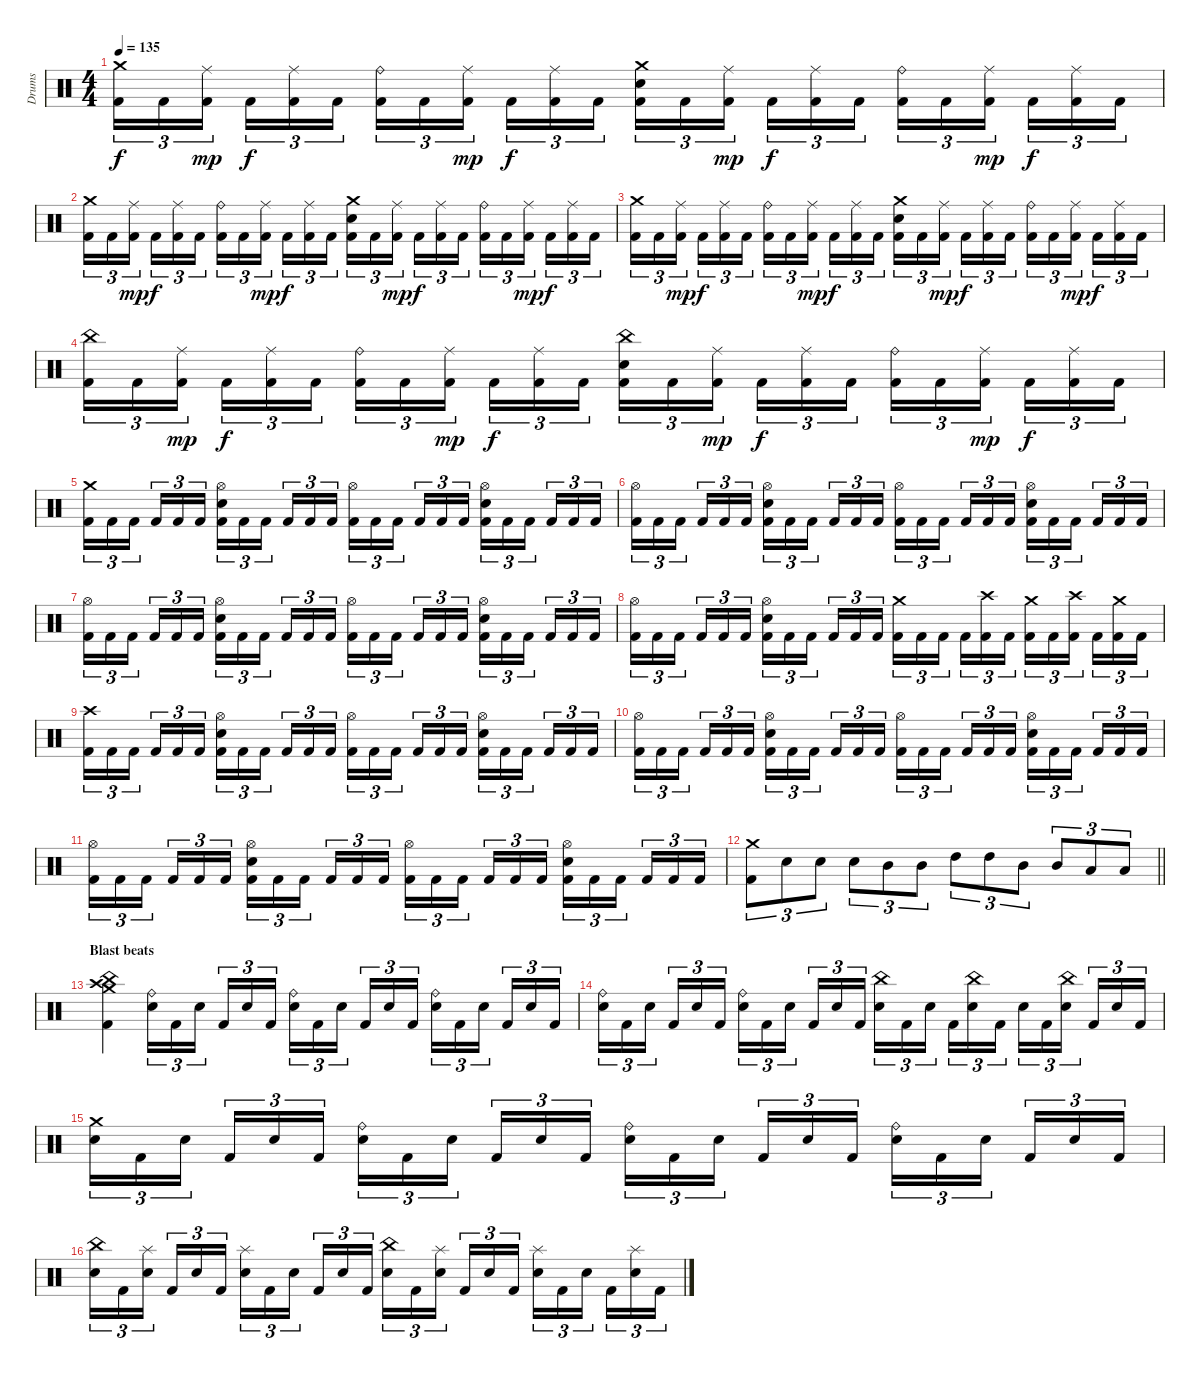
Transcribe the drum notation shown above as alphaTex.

\track ("Drums" "Drums") {instrument percussion}
\staff {score}
\articulation defaults
\ts (4 4)
\tempo 135
\clef neutral
\ks c
("Crash medium (hit)" "Kick (hit) 2").16{tu (3 2) dy f} "Kick (hit) 2".16{tu (3 2)} ("Ride (middle)" "Kick (hit) 2").16{tu (3 2) dy mp beam splitsecondary} "Kick (hit) 2".16{tu (3 2) dy f} ("Ride (middle)" "Kick (hit) 2").16{tu (3 2)} "Kick (hit) 2".16{tu (3 2)} ("Ride (bell)" "Kick (hit) 2").16{tu (3 2)} "Kick (hit) 2".16{tu (3 2)} ("Ride (middle)" "Kick (hit) 2").16{tu (3 2) dy mp beam splitsecondary} "Kick (hit) 2".16{tu (3 2) dy f} ("Ride (middle)" "Kick (hit) 2").16{tu (3 2)} "Kick (hit) 2".16{tu (3 2)} ("Crash medium (hit)" "Electric Snare (hit)" "Kick (hit) 2").16{tu (3 2)} "Kick (hit) 2".16{tu (3 2)} ("Ride (middle)" "Kick (hit) 2").16{tu (3 2) dy mp beam splitsecondary} "Kick (hit) 2".16{tu (3 2) dy f} ("Ride (middle)" "Kick (hit) 2").16{tu (3 2)} "Kick (hit) 2".16{tu (3 2)} ("Ride (bell)" "Kick (hit) 2").16{tu (3 2)} "Kick (hit) 2".16{tu (3 2)} ("Ride (middle)" "Kick (hit) 2").16{tu (3 2) dy mp beam splitsecondary} "Kick (hit) 2".16{tu (3 2) dy f} ("Ride (middle)" "Kick (hit) 2").16{tu (3 2)} "Kick (hit) 2".16{tu (3 2)} |
("Crash medium (hit)" "Kick (hit) 2").16{tu (3 2)} "Kick (hit) 2".16{tu (3 2)} ("Ride (middle)" "Kick (hit) 2").16{tu (3 2) dy mp beam splitsecondary} "Kick (hit) 2".16{tu (3 2) dy f} ("Ride (middle)" "Kick (hit) 2").16{tu (3 2)} "Kick (hit) 2".16{tu (3 2)} ("Ride (bell)" "Kick (hit) 2").16{tu (3 2)} "Kick (hit) 2".16{tu (3 2)} ("Ride (middle)" "Kick (hit) 2").16{tu (3 2) dy mp beam splitsecondary} "Kick (hit) 2".16{tu (3 2) dy f} ("Ride (middle)" "Kick (hit) 2").16{tu (3 2)} "Kick (hit) 2".16{tu (3 2)} ("Crash medium (hit)" "Electric Snare (hit)" "Kick (hit) 2").16{tu (3 2)} "Kick (hit) 2".16{tu (3 2)} ("Ride (middle)" "Kick (hit) 2").16{tu (3 2) dy mp beam splitsecondary} "Kick (hit) 2".16{tu (3 2) dy f} ("Ride (middle)" "Kick (hit) 2").16{tu (3 2)} "Kick (hit) 2".16{tu (3 2)} ("Ride (bell)" "Kick (hit) 2").16{tu (3 2)} "Kick (hit) 2".16{tu (3 2)} ("Ride (middle)" "Kick (hit) 2").16{tu (3 2) dy mp beam splitsecondary} "Kick (hit) 2".16{tu (3 2) dy f} ("Ride (middle)" "Kick (hit) 2").16{tu (3 2)} "Kick (hit) 2".16{tu (3 2)} |
("Crash medium (hit)" "Kick (hit) 2").16{tu (3 2)} "Kick (hit) 2".16{tu (3 2)} ("Ride (middle)" "Kick (hit) 2").16{tu (3 2) dy mp beam splitsecondary} "Kick (hit) 2".16{tu (3 2) dy f} ("Ride (middle)" "Kick (hit) 2").16{tu (3 2)} "Kick (hit) 2".16{tu (3 2)} ("Ride (bell)" "Kick (hit) 2").16{tu (3 2)} "Kick (hit) 2".16{tu (3 2)} ("Ride (middle)" "Kick (hit) 2").16{tu (3 2) dy mp beam splitsecondary} "Kick (hit) 2".16{tu (3 2) dy f} ("Ride (middle)" "Kick (hit) 2").16{tu (3 2)} "Kick (hit) 2".16{tu (3 2)} ("Crash medium (hit)" "Electric Snare (hit)" "Kick (hit) 2").16{tu (3 2)} "Kick (hit) 2".16{tu (3 2)} ("Ride (middle)" "Kick (hit) 2").16{tu (3 2) dy mp beam splitsecondary} "Kick (hit) 2".16{tu (3 2) dy f} ("Ride (middle)" "Kick (hit) 2").16{tu (3 2)} "Kick (hit) 2".16{tu (3 2)} ("Ride (bell)" "Kick (hit) 2").16{tu (3 2)} "Kick (hit) 2".16{tu (3 2)} ("Ride (middle)" "Kick (hit) 2").16{tu (3 2) dy mp beam splitsecondary} "Kick (hit) 2".16{tu (3 2) dy f} ("Ride (middle)" "Kick (hit) 2").16{tu (3 2)} "Kick (hit) 2".16{tu (3 2)} |
("China (hit)" "Kick (hit) 2").16{tu (3 2)} "Kick (hit) 2".16{tu (3 2)} ("Ride (middle)" "Kick (hit) 2").16{tu (3 2) dy mp beam splitsecondary} "Kick (hit) 2".16{tu (3 2) dy f} ("Ride (middle)" "Kick (hit) 2").16{tu (3 2)} "Kick (hit) 2".16{tu (3 2)} ("Ride (bell)" "Kick (hit) 2").16{tu (3 2)} "Kick (hit) 2".16{tu (3 2)} ("Ride (middle)" "Kick (hit) 2").16{tu (3 2) dy mp beam splitsecondary} "Kick (hit) 2".16{tu (3 2) dy f} ("Ride (middle)" "Kick (hit) 2").16{tu (3 2)} "Kick (hit) 2".16{tu (3 2)} ("China (hit)" "Electric Snare (hit)" "Kick (hit) 2").16{tu (3 2)} "Kick (hit) 2".16{tu (3 2)} ("Ride (middle)" "Kick (hit) 2").16{tu (3 2) dy mp beam splitsecondary} "Kick (hit) 2".16{tu (3 2) dy f} ("Ride (middle)" "Kick (hit) 2").16{tu (3 2)} "Kick (hit) 2".16{tu (3 2)} ("Ride (bell)" "Kick (hit) 2").16{tu (3 2)} "Kick (hit) 2".16{tu (3 2)} ("Ride (middle)" "Kick (hit) 2").16{tu (3 2) dy mp beam splitsecondary} "Kick (hit) 2".16{tu (3 2) dy f} ("Ride (middle)" "Kick (hit) 2").16{tu (3 2)} "Kick (hit) 2".16{tu (3 2)} |
("Crash medium (hit)" "Kick (hit) 2").16{tu (3 2)} "Kick (hit) 2".16{tu (3 2)} "Kick (hit) 2".16{tu (3 2) beam splitsecondary} "Kick (hit) 2".16{tu (3 2)} "Kick (hit) 2".16{tu (3 2)} "Kick (hit) 2".16{tu (3 2)} ("Hi-Hat (open)" "Electric Snare (hit)" "Kick (hit) 2").16{tu (3 2)} "Kick (hit) 2".16{tu (3 2)} "Kick (hit) 2".16{tu (3 2) beam splitsecondary} "Kick (hit) 2".16{tu (3 2)} "Kick (hit) 2".16{tu (3 2)} "Kick (hit) 2".16{tu (3 2)} ("Hi-Hat (open)" "Kick (hit) 2").16{tu (3 2)} "Kick (hit) 2".16{tu (3 2)} "Kick (hit) 2".16{tu (3 2) beam splitsecondary} "Kick (hit) 2".16{tu (3 2)} "Kick (hit) 2".16{tu (3 2)} "Kick (hit) 2".16{tu (3 2)} ("Hi-Hat (open)" "Electric Snare (hit)" "Kick (hit) 2").16{tu (3 2)} "Kick (hit) 2".16{tu (3 2)} "Kick (hit) 2".16{tu (3 2) beam splitsecondary} "Kick (hit) 2".16{tu (3 2)} "Kick (hit) 2".16{tu (3 2)} "Kick (hit) 2".16{tu (3 2)} |
("Hi-Hat (open)" "Kick (hit) 2").16{tu (3 2)} "Kick (hit) 2".16{tu (3 2)} "Kick (hit) 2".16{tu (3 2) beam splitsecondary} "Kick (hit) 2".16{tu (3 2)} "Kick (hit) 2".16{tu (3 2)} "Kick (hit) 2".16{tu (3 2)} ("Hi-Hat (open)" "Electric Snare (hit)" "Kick (hit) 2").16{tu (3 2)} "Kick (hit) 2".16{tu (3 2)} "Kick (hit) 2".16{tu (3 2) beam splitsecondary} "Kick (hit) 2".16{tu (3 2)} "Kick (hit) 2".16{tu (3 2)} "Kick (hit) 2".16{tu (3 2)} ("Hi-Hat (open)" "Kick (hit) 2").16{tu (3 2)} "Kick (hit) 2".16{tu (3 2)} "Kick (hit) 2".16{tu (3 2) beam splitsecondary} "Kick (hit) 2".16{tu (3 2)} "Kick (hit) 2".16{tu (3 2)} "Kick (hit) 2".16{tu (3 2)} ("Hi-Hat (open)" "Electric Snare (hit)" "Kick (hit) 2").16{tu (3 2)} "Kick (hit) 2".16{tu (3 2)} "Kick (hit) 2".16{tu (3 2) beam splitsecondary} "Kick (hit) 2".16{tu (3 2)} "Kick (hit) 2".16{tu (3 2)} "Kick (hit) 2".16{tu (3 2)} |
("Hi-Hat (open)" "Kick (hit) 2").16{tu (3 2)} "Kick (hit) 2".16{tu (3 2)} "Kick (hit) 2".16{tu (3 2) beam splitsecondary} "Kick (hit) 2".16{tu (3 2)} "Kick (hit) 2".16{tu (3 2)} "Kick (hit) 2".16{tu (3 2)} ("Hi-Hat (open)" "Electric Snare (hit)" "Kick (hit) 2").16{tu (3 2)} "Kick (hit) 2".16{tu (3 2)} "Kick (hit) 2".16{tu (3 2) beam splitsecondary} "Kick (hit) 2".16{tu (3 2)} "Kick (hit) 2".16{tu (3 2)} "Kick (hit) 2".16{tu (3 2)} ("Hi-Hat (open)" "Kick (hit) 2").16{tu (3 2)} "Kick (hit) 2".16{tu (3 2)} "Kick (hit) 2".16{tu (3 2) beam splitsecondary} "Kick (hit) 2".16{tu (3 2)} "Kick (hit) 2".16{tu (3 2)} "Kick (hit) 2".16{tu (3 2)} ("Hi-Hat (open)" "Electric Snare (hit)" "Kick (hit) 2").16{tu (3 2)} "Kick (hit) 2".16{tu (3 2)} "Kick (hit) 2".16{tu (3 2) beam splitsecondary} "Kick (hit) 2".16{tu (3 2)} "Kick (hit) 2".16{tu (3 2)} "Kick (hit) 2".16{tu (3 2)} |
("Hi-Hat (open)" "Kick (hit) 2").16{tu (3 2)} "Kick (hit) 2".16{tu (3 2)} "Kick (hit) 2".16{tu (3 2) beam splitsecondary} "Kick (hit) 2".16{tu (3 2)} "Kick (hit) 2".16{tu (3 2)} "Kick (hit) 2".16{tu (3 2)} ("Hi-Hat (open)" "Electric Snare (hit)" "Kick (hit) 2").16{tu (3 2)} "Kick (hit) 2".16{tu (3 2)} "Kick (hit) 2".16{tu (3 2) beam splitsecondary} "Kick (hit) 2".16{tu (3 2)} "Kick (hit) 2".16{tu (3 2)} "Kick (hit) 2".16{tu (3 2)} ("Crash medium (hit)" "Kick (hit) 2").16{tu (3 2)} "Kick (hit) 2".16{tu (3 2)} "Kick (hit) 2".16{tu (3 2) beam splitsecondary} "Kick (hit) 2".16{tu (3 2)} ("Crash high (hit)" "Kick (hit) 2").16{tu (3 2)} "Kick (hit) 2".16{tu (3 2)} ("Crash medium (hit)" "Kick (hit) 2").16{tu (3 2)} "Kick (hit) 2".16{tu (3 2)} ("Crash high (hit)" "Kick (hit) 2").16{tu (3 2) beam splitsecondary} "Kick (hit) 2".16{tu (3 2)} ("Crash medium (hit)" "Kick (hit) 2").16{tu (3 2)} "Kick (hit) 2".16{tu (3 2)} |
("Crash high (hit)" "Kick (hit) 2").16{tu (3 2)} "Kick (hit) 2".16{tu (3 2)} "Kick (hit) 2".16{tu (3 2) beam splitsecondary} "Kick (hit) 2".16{tu (3 2)} "Kick (hit) 2".16{tu (3 2)} "Kick (hit) 2".16{tu (3 2)} ("Hi-Hat (open)" "Electric Snare (hit)" "Kick (hit) 2").16{tu (3 2)} "Kick (hit) 2".16{tu (3 2)} "Kick (hit) 2".16{tu (3 2) beam splitsecondary} "Kick (hit) 2".16{tu (3 2)} "Kick (hit) 2".16{tu (3 2)} "Kick (hit) 2".16{tu (3 2)} ("Hi-Hat (open)" "Kick (hit) 2").16{tu (3 2)} "Kick (hit) 2".16{tu (3 2)} "Kick (hit) 2".16{tu (3 2) beam splitsecondary} "Kick (hit) 2".16{tu (3 2)} "Kick (hit) 2".16{tu (3 2)} "Kick (hit) 2".16{tu (3 2)} ("Hi-Hat (open)" "Electric Snare (hit)" "Kick (hit) 2").16{tu (3 2)} "Kick (hit) 2".16{tu (3 2)} "Kick (hit) 2".16{tu (3 2) beam splitsecondary} "Kick (hit) 2".16{tu (3 2)} "Kick (hit) 2".16{tu (3 2)} "Kick (hit) 2".16{tu (3 2)} |
("Hi-Hat (open)" "Kick (hit) 2").16{tu (3 2)} "Kick (hit) 2".16{tu (3 2)} "Kick (hit) 2".16{tu (3 2) beam splitsecondary} "Kick (hit) 2".16{tu (3 2)} "Kick (hit) 2".16{tu (3 2)} "Kick (hit) 2".16{tu (3 2)} ("Hi-Hat (open)" "Electric Snare (hit)" "Kick (hit) 2").16{tu (3 2)} "Kick (hit) 2".16{tu (3 2)} "Kick (hit) 2".16{tu (3 2) beam splitsecondary} "Kick (hit) 2".16{tu (3 2)} "Kick (hit) 2".16{tu (3 2)} "Kick (hit) 2".16{tu (3 2)} ("Hi-Hat (open)" "Kick (hit) 2").16{tu (3 2)} "Kick (hit) 2".16{tu (3 2)} "Kick (hit) 2".16{tu (3 2) beam splitsecondary} "Kick (hit) 2".16{tu (3 2)} "Kick (hit) 2".16{tu (3 2)} "Kick (hit) 2".16{tu (3 2)} ("Hi-Hat (open)" "Electric Snare (hit)" "Kick (hit) 2").16{tu (3 2)} "Kick (hit) 2".16{tu (3 2)} "Kick (hit) 2".16{tu (3 2) beam splitsecondary} "Kick (hit) 2".16{tu (3 2)} "Kick (hit) 2".16{tu (3 2)} "Kick (hit) 2".16{tu (3 2)} |
("Hi-Hat (open)" "Kick (hit) 2").16{tu (3 2)} "Kick (hit) 2".16{tu (3 2)} "Kick (hit) 2".16{tu (3 2) beam splitsecondary} "Kick (hit) 2".16{tu (3 2)} "Kick (hit) 2".16{tu (3 2)} "Kick (hit) 2".16{tu (3 2)} ("Hi-Hat (open)" "Electric Snare (hit)" "Kick (hit) 2").16{tu (3 2)} "Kick (hit) 2".16{tu (3 2)} "Kick (hit) 2".16{tu (3 2) beam splitsecondary} "Kick (hit) 2".16{tu (3 2)} "Kick (hit) 2".16{tu (3 2)} "Kick (hit) 2".16{tu (3 2)} ("Hi-Hat (open)" "Kick (hit) 2").16{tu (3 2)} "Kick (hit) 2".16{tu (3 2)} "Kick (hit) 2".16{tu (3 2) beam splitsecondary} "Kick (hit) 2".16{tu (3 2)} "Kick (hit) 2".16{tu (3 2)} "Kick (hit) 2".16{tu (3 2)} ("Hi-Hat (open)" "Electric Snare (hit)" "Kick (hit) 2").16{tu (3 2)} "Kick (hit) 2".16{tu (3 2)} "Kick (hit) 2".16{tu (3 2) beam splitsecondary} "Kick (hit) 2".16{tu (3 2)} "Kick (hit) 2".16{tu (3 2)} "Kick (hit) 2".16{tu (3 2)} |
\barLineRight lightlight
("Crash medium (hit)" "Kick (hit) 2").8{tu (3 2)} "Electric Snare (hit)".8{tu (3 2)} "Electric Snare (hit)".8{tu (3 2)} "Electric Snare (hit)".8{tu (3 2)} "Mid Tom (hit)".8{tu (3 2)} "Mid Tom (hit)".8{tu (3 2)} "High Tom (hit)".8{tu (3 2)} "High Tom (hit)".8{tu (3 2)} "Mid Tom (hit)".8{tu (3 2)} "Mid Tom (hit)".8{tu (3 2)} "Low Tom (hit)".8{tu (3 2)} "Low Tom (hit)".8{tu (3 2)} |
\section ("" "Blast beats")
("Crash high (hit)" "Crash medium (hit)" "China (hit)" "Kick (hit) 2").4 ("Ride (bell)" "Electric Snare (hit)").16{tu (3 2)} "Kick (hit) 2".16{tu (3 2)} "Electric Snare (hit)".16{tu (3 2) beam splitsecondary} "Kick (hit) 2".16{tu (3 2)} "Electric Snare (hit)".16{tu (3 2)} "Kick (hit) 2".16{tu (3 2)} ("Ride (bell)" "Electric Snare (hit)").16{tu (3 2)} "Kick (hit) 2".16{tu (3 2)} "Electric Snare (hit)".16{tu (3 2) beam splitsecondary} "Kick (hit) 2".16{tu (3 2)} "Electric Snare (hit)".16{tu (3 2)} "Kick (hit) 2".16{tu (3 2)} ("Ride (bell)" "Electric Snare (hit)").16{tu (3 2)} "Kick (hit) 2".16{tu (3 2)} "Electric Snare (hit)".16{tu (3 2) beam splitsecondary} "Kick (hit) 2".16{tu (3 2)} "Electric Snare (hit)".16{tu (3 2)} "Kick (hit) 2".16{tu (3 2)} |
("Ride (bell)" "Electric Snare (hit)").16{tu (3 2)} "Kick (hit) 2".16{tu (3 2)} "Electric Snare (hit)".16{tu (3 2) beam splitsecondary} "Kick (hit) 2".16{tu (3 2)} "Electric Snare (hit)".16{tu (3 2)} "Kick (hit) 2".16{tu (3 2)} ("Ride (bell)" "Electric Snare (hit)").16{tu (3 2)} "Kick (hit) 2".16{tu (3 2)} "Electric Snare (hit)".16{tu (3 2) beam splitsecondary} "Kick (hit) 2".16{tu (3 2)} "Electric Snare (hit)".16{tu (3 2)} "Kick (hit) 2".16{tu (3 2)} ("China (hit)" "Electric Snare (hit)").16{tu (3 2)} "Kick (hit) 2".16{tu (3 2)} "Electric Snare (hit)".16{tu (3 2) beam splitsecondary} "Kick (hit) 2".16{tu (3 2)} ("China (hit)" "Electric Snare (hit)").16{tu (3 2)} "Kick (hit) 2".16{tu (3 2)} "Electric Snare (hit)".16{tu (3 2)} "Kick (hit) 2".16{tu (3 2)} ("China (hit)" "Electric Snare (hit)").16{tu (3 2) beam splitsecondary} "Kick (hit) 2".16{tu (3 2)} "Electric Snare (hit)".16{tu (3 2)} "Kick (hit) 2".16{tu (3 2)} |
("Crash medium (hit)" "Electric Snare (hit)").16{tu (3 2)} "Kick (hit) 2".16{tu (3 2)} "Electric Snare (hit)".16{tu (3 2) beam splitsecondary} "Kick (hit) 2".16{tu (3 2)} "Electric Snare (hit)".16{tu (3 2)} "Kick (hit) 2".16{tu (3 2)} ("Ride (bell)" "Electric Snare (hit)").16{tu (3 2)} "Kick (hit) 2".16{tu (3 2)} "Electric Snare (hit)".16{tu (3 2) beam splitsecondary} "Kick (hit) 2".16{tu (3 2)} "Electric Snare (hit)".16{tu (3 2)} "Kick (hit) 2".16{tu (3 2)} ("Ride (bell)" "Electric Snare (hit)").16{tu (3 2)} "Kick (hit) 2".16{tu (3 2)} "Electric Snare (hit)".16{tu (3 2) beam splitsecondary} "Kick (hit) 2".16{tu (3 2)} "Electric Snare (hit)".16{tu (3 2)} "Kick (hit) 2".16{tu (3 2)} ("Ride (bell)" "Electric Snare (hit)").16{tu (3 2)} "Kick (hit) 2".16{tu (3 2)} "Electric Snare (hit)".16{tu (3 2) beam splitsecondary} "Kick (hit) 2".16{tu (3 2)} "Electric Snare (hit)".16{tu (3 2)} "Kick (hit) 2".16{tu (3 2)} |
("China (hit)" "Electric Snare (hit)").16{tu (3 2)} "Kick (hit) 2".16{tu (3 2)} ("Splash (hit)" "Electric Snare (hit)").16{tu (3 2) beam splitsecondary} "Kick (hit) 2".16{tu (3 2)} "Electric Snare (hit)".16{tu (3 2)} "Kick (hit) 2".16{tu (3 2)} ("Splash (hit)" "Electric Snare (hit)").16{tu (3 2)} "Kick (hit) 2".16{tu (3 2)} "Electric Snare (hit)".16{tu (3 2) beam splitsecondary} "Kick (hit) 2".16{tu (3 2)} "Electric Snare (hit)".16{tu (3 2)} "Kick (hit) 2".16{tu (3 2)} ("China (hit)" "Electric Snare (hit)").16{tu (3 2)} "Kick (hit) 2".16{tu (3 2)} ("Splash (hit)" "Electric Snare (hit)").16{tu (3 2) beam splitsecondary} "Kick (hit) 2".16{tu (3 2)} "Electric Snare (hit)".16{tu (3 2)} "Kick (hit) 2".16{tu (3 2)} ("Splash (hit)" "Electric Snare (hit)").16{tu (3 2)} "Kick (hit) 2".16{tu (3 2)} "Electric Snare (hit)".16{tu (3 2) beam splitsecondary} "Kick (hit) 2".16{tu (3 2)} ("Splash (hit)" "Electric Snare (hit)").16{tu (3 2)} "Kick (hit) 2".16{tu (3 2)}
